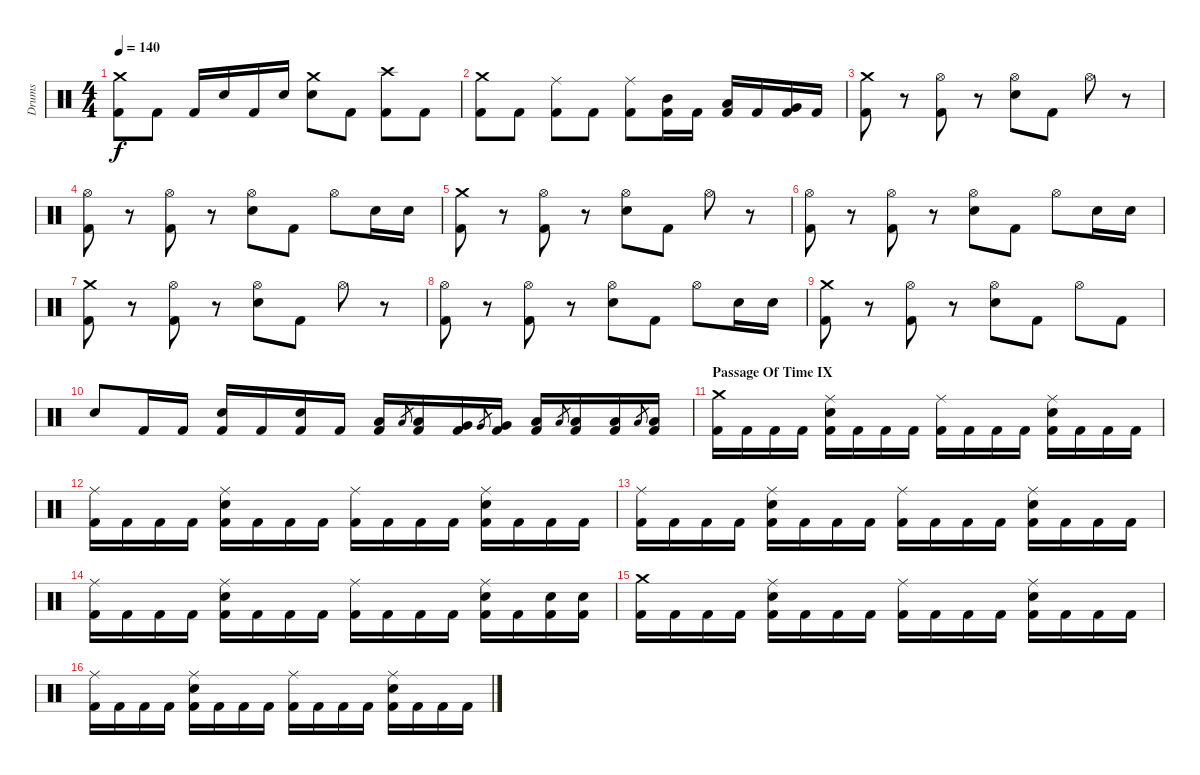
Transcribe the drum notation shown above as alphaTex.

\track ("Drums" "Drums") {instrument percussion}
\staff {score}
\articulation defaults
\ts (4 4)
\tempo 140
\clef neutral
\ks c
("Crash medium (hit)" "Kick (hit) 2").8{dy f} "Kick (hit) 2".8 "Kick (hit) 2".16 "Electric Snare (hit)".16 "Kick (hit) 2".16 "Electric Snare (hit)".16 ("Crash medium (hit)" "Electric Snare (hit)").8 "Kick (hit) 2".8 ("Crash high (hit)" "Kick (hit) 2").8 "Kick (hit) 2".8 |
("Crash medium (hit)" "Kick (hit) 2").8 "Kick (hit) 2".8 ("Ride (middle)" "Kick (hit) 2").8 "Kick (hit) 2".8 ("Ride (middle)" "Kick (hit) 2").8 ("Mid Tom (hit)" "Kick (hit) 2").16 "Kick (hit) 2".16 ("Low Tom (hit)" "Kick (hit) 2").16 "Kick (hit) 2".16 ("Very Low Tom (hit)" "Kick (hit) 2").16 "Kick (hit) 2".16 |
\section ("" "")
("Crash medium (hit)" "Kick (hit) 2").8 r.8 ("Hi-Hat (open)" "Kick (hit) 2").8 r.8 ("Hi-Hat (open)" "Electric Snare (hit)").8 "Kick (hit) 2".8 "Hi-Hat (open)".8 r.8 |
("Hi-Hat (open)" "Kick (hit) 2").8 r.8 ("Hi-Hat (open)" "Kick (hit) 2").8 r.8 ("Hi-Hat (open)" "Electric Snare (hit)").8 "Kick (hit) 2".8 "Hi-Hat (open)".8 "Electric Snare (hit)".16 "Electric Snare (hit)".16 |
("Crash medium (hit)" "Kick (hit) 2").8 r.8 ("Hi-Hat (open)" "Kick (hit) 2").8 r.8 ("Hi-Hat (open)" "Electric Snare (hit)").8 "Kick (hit) 2".8 "Hi-Hat (open)".8 r.8 |
("Hi-Hat (open)" "Kick (hit) 2").8 r.8 ("Hi-Hat (open)" "Kick (hit) 2").8 r.8 ("Hi-Hat (open)" "Electric Snare (hit)").8 "Kick (hit) 2".8 "Hi-Hat (open)".8 "Electric Snare (hit)".16 "Electric Snare (hit)".16 |
("Crash medium (hit)" "Kick (hit) 2").8 r.8 ("Hi-Hat (open)" "Kick (hit) 2").8 r.8 ("Hi-Hat (open)" "Electric Snare (hit)").8 "Kick (hit) 2".8 "Hi-Hat (open)".8 r.8 |
("Hi-Hat (open)" "Kick (hit) 2").8 r.8 ("Hi-Hat (open)" "Kick (hit) 2").8 r.8 ("Hi-Hat (open)" "Electric Snare (hit)").8 "Kick (hit) 2".8 "Hi-Hat (open)".8 "Electric Snare (hit)".16 "Electric Snare (hit)".16 |
("Crash medium (hit)" "Kick (hit) 2").8 r.8 ("Hi-Hat (open)" "Kick (hit) 2").8 r.8 ("Hi-Hat (open)" "Electric Snare (hit)").8 "Kick (hit) 2".8 "Hi-Hat (open)".8 "Kick (hit) 2".8 |
"Electric Snare (hit)".8 "Kick (hit) 2".16 "Kick (hit) 2".16 ("Electric Snare (hit)" "Kick (hit) 2").16 "Kick (hit) 2".16 ("Electric Snare (hit)" "Kick (hit) 2").16 "Kick (hit) 2".16 ("Low Tom (hit)" "Kick (hit) 2").16 "Low Tom (hit)".8{gr} ("Low Tom (hit)" "Kick (hit) 2").16 ("Very Low Tom (hit)" "Kick (hit) 2").16 "Very Low Tom (hit)".8{gr} ("Very Low Tom (hit)" "Kick (hit) 2").16 ("Low Floor Tom (hit)" "Kick (hit) 2").16 "Low Floor Tom (hit)".8{gr} ("Low Floor Tom (hit)" "Kick (hit) 2").16 ("Low Floor Tom (hit)" "Kick (hit) 2").16 "Low Floor Tom (hit)".8{gr} ("Low Floor Tom (hit)" "Kick (hit) 2").16 |
\section ("" "Passage Of Time IX")
("Crash medium (hit)" "Kick (hit) 2").16 "Kick (hit) 2".16 "Kick (hit) 2".16 "Kick (hit) 2".16 ("Ride (middle)" "Electric Snare (hit)" "Kick (hit) 2").16 "Kick (hit) 2".16 "Kick (hit) 2".16 "Kick (hit) 2".16 ("Ride (middle)" "Kick (hit) 2").16 "Kick (hit) 2".16 "Kick (hit) 2".16 "Kick (hit) 2".16 ("Ride (middle)" "Electric Snare (hit)" "Kick (hit) 2").16 "Kick (hit) 2".16 "Kick (hit) 2".16 "Kick (hit) 2".16 |
("Ride (middle)" "Kick (hit) 2").16 "Kick (hit) 2".16 "Kick (hit) 2".16 "Kick (hit) 2".16 ("Ride (middle)" "Electric Snare (hit)" "Kick (hit) 2").16 "Kick (hit) 2".16 "Kick (hit) 2".16 "Kick (hit) 2".16 ("Ride (middle)" "Kick (hit) 2").16 "Kick (hit) 2".16 "Kick (hit) 2".16 "Kick (hit) 2".16 ("Ride (middle)" "Electric Snare (hit)" "Kick (hit) 2").16 "Kick (hit) 2".16 "Kick (hit) 2".16 "Kick (hit) 2".16 |
("Ride (middle)" "Kick (hit) 2").16 "Kick (hit) 2".16 "Kick (hit) 2".16 "Kick (hit) 2".16 ("Ride (middle)" "Electric Snare (hit)" "Kick (hit) 2").16 "Kick (hit) 2".16 "Kick (hit) 2".16 "Kick (hit) 2".16 ("Ride (middle)" "Kick (hit) 2").16 "Kick (hit) 2".16 "Kick (hit) 2".16 "Kick (hit) 2".16 ("Ride (middle)" "Electric Snare (hit)" "Kick (hit) 2").16 "Kick (hit) 2".16 "Kick (hit) 2".16 "Kick (hit) 2".16 |
("Ride (middle)" "Kick (hit) 2").16 "Kick (hit) 2".16 "Kick (hit) 2".16 "Kick (hit) 2".16 ("Ride (middle)" "Electric Snare (hit)" "Kick (hit) 2").16 "Kick (hit) 2".16 "Kick (hit) 2".16 "Kick (hit) 2".16 ("Ride (middle)" "Kick (hit) 2").16 "Kick (hit) 2".16 "Kick (hit) 2".16 "Kick (hit) 2".16 ("Ride (middle)" "Electric Snare (hit)" "Kick (hit) 2").16 "Kick (hit) 2".16 ("Electric Snare (hit)" "Kick (hit) 2").16 ("Electric Snare (hit)" "Kick (hit) 2").16 |
("Crash medium (hit)" "Kick (hit) 2").16 "Kick (hit) 2".16 "Kick (hit) 2".16 "Kick (hit) 2".16 ("Ride (middle)" "Electric Snare (hit)" "Kick (hit) 2").16 "Kick (hit) 2".16 "Kick (hit) 2".16 "Kick (hit) 2".16 ("Ride (middle)" "Kick (hit) 2").16 "Kick (hit) 2".16 "Kick (hit) 2".16 "Kick (hit) 2".16 ("Ride (middle)" "Electric Snare (hit)" "Kick (hit) 2").16 "Kick (hit) 2".16 "Kick (hit) 2".16 "Kick (hit) 2".16 |
("Ride (middle)" "Kick (hit) 2").16 "Kick (hit) 2".16 "Kick (hit) 2".16 "Kick (hit) 2".16 ("Ride (middle)" "Electric Snare (hit)" "Kick (hit) 2").16 "Kick (hit) 2".16 "Kick (hit) 2".16 "Kick (hit) 2".16 ("Ride (middle)" "Kick (hit) 2").16 "Kick (hit) 2".16 "Kick (hit) 2".16 "Kick (hit) 2".16 ("Ride (middle)" "Electric Snare (hit)" "Kick (hit) 2").16 "Kick (hit) 2".16 "Kick (hit) 2".16 "Kick (hit) 2".16
